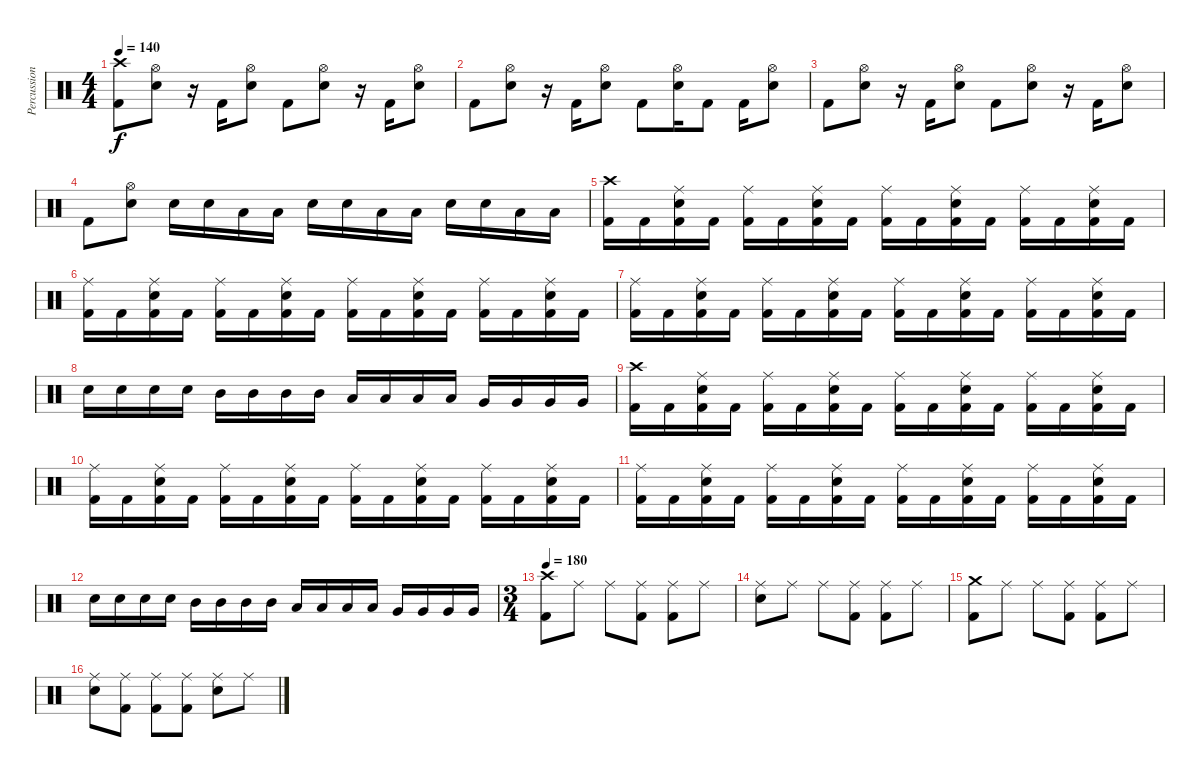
\track ("Percussion" "Percussion") {instrument percussion}
\staff {score}
\articulation defaults
\ts (4 4)
\tempo 140
\clef neutral
\ks c
("Crash high (hit)" "Kick (hit) 2").8{dy f} ("Hi-Hat (open)" "Snare (hit) 2").8 r.16 "Kick (hit) 2".16 ("Hi-Hat (open)" "Snare (hit) 2").8 "Kick (hit) 2".8 ("Hi-Hat (open)" "Snare (hit) 2").8 r.16 "Kick (hit) 2".16 ("Hi-Hat (open)" "Snare (hit) 2").8 |
"Kick (hit) 2".8 ("Hi-Hat (open)" "Snare (hit) 2").8 r.16 "Kick (hit) 2".16 ("Hi-Hat (open)" "Snare (hit) 2").8 "Kick (hit) 2".8 ("Hi-Hat (open)" "Snare (hit) 2").16 "Kick (hit) 2".8 "Kick (hit) 2".16 ("Hi-Hat (open)" "Snare (hit) 2").8 |
"Kick (hit) 2".8 ("Hi-Hat (open)" "Snare (hit) 2").8 r.16 "Kick (hit) 2".16 ("Hi-Hat (open)" "Snare (hit) 2").8 "Kick (hit) 2".8 ("Hi-Hat (open)" "Snare (hit) 2").8 r.16 "Kick (hit) 2".16 ("Hi-Hat (open)" "Snare (hit) 2").8 |
"Kick (hit) 2".8 ("Hi-Hat (open)" "Snare (hit) 2").8 "Snare (hit) 2".16 "Snare (hit) 2".16 "Low Tom (hit)".16 "Low Tom (hit)".16 "Snare (hit) 2".16 "Snare (hit) 2".16 "Low Tom (hit)".16 "Low Tom (hit)".16 "Snare (hit) 2".16 "Snare (hit) 2".16 "Low Tom (hit)".16 "Low Tom (hit)".16 |
("Crash high (hit)" "Kick (hit) 2").16 "Kick (hit) 2".16 ("Ride (middle)" "Snare (hit) 2" "Kick (hit) 2").16 "Kick (hit) 2".16 ("Ride (middle)" "Kick (hit) 2").16 "Kick (hit) 2".16 ("Ride (middle)" "Snare (hit) 2" "Kick (hit) 2").16 "Kick (hit) 2".16 ("Ride (middle)" "Kick (hit) 2").16 "Kick (hit) 2".16 ("Ride (middle)" "Snare (hit) 2" "Kick (hit) 2").16 "Kick (hit) 2".16 ("Ride (middle)" "Kick (hit) 2").16 "Kick (hit) 2".16 ("Ride (middle)" "Snare (hit) 2" "Kick (hit) 2").16 "Kick (hit) 2".16 |
("Ride (middle)" "Kick (hit) 2").16 "Kick (hit) 2".16 ("Ride (middle)" "Snare (hit) 2" "Kick (hit) 2").16 "Kick (hit) 2".16 ("Ride (middle)" "Kick (hit) 2").16 "Kick (hit) 2".16 ("Ride (middle)" "Snare (hit) 2" "Kick (hit) 2").16 "Kick (hit) 2".16 ("Ride (middle)" "Kick (hit) 2").16 "Kick (hit) 2".16 ("Ride (middle)" "Snare (hit) 2" "Kick (hit) 2").16 "Kick (hit) 2".16 ("Ride (middle)" "Kick (hit) 2").16 "Kick (hit) 2".16 ("Ride (middle)" "Snare (hit) 2" "Kick (hit) 2").16 "Kick (hit) 2".16 |
("Ride (middle)" "Kick (hit) 2").16 "Kick (hit) 2".16 ("Ride (middle)" "Snare (hit) 2" "Kick (hit) 2").16 "Kick (hit) 2".16 ("Ride (middle)" "Kick (hit) 2").16 "Kick (hit) 2".16 ("Ride (middle)" "Snare (hit) 2" "Kick (hit) 2").16 "Kick (hit) 2".16 ("Ride (middle)" "Kick (hit) 2").16 "Kick (hit) 2".16 ("Ride (middle)" "Snare (hit) 2" "Kick (hit) 2").16 "Kick (hit) 2".16 ("Ride (middle)" "Kick (hit) 2").16 "Kick (hit) 2".16 ("Ride (middle)" "Snare (hit) 2" "Kick (hit) 2").16 "Kick (hit) 2".16 |
"Snare (hit) 2".16 "Snare (hit) 2".16 "Snare (hit) 2".16 "Snare (hit) 2".16 "Mid Tom (hit)".16 "Mid Tom (hit)".16 "Mid Tom (hit)".16 "Mid Tom (hit)".16 "Low Tom (hit)".16 "Low Tom (hit)".16 "Low Tom (hit)".16 "Low Tom (hit)".16 "Very Low Tom (hit)".16 "Very Low Tom (hit)".16 "Very Low Tom (hit)".16 "Very Low Tom (hit)".16 |
("Crash high (hit)" "Kick (hit) 2").16 "Kick (hit) 2".16 ("Ride (middle)" "Snare (hit) 2" "Kick (hit) 2").16 "Kick (hit) 2".16 ("Ride (middle)" "Kick (hit) 2").16 "Kick (hit) 2".16 ("Ride (middle)" "Snare (hit) 2" "Kick (hit) 2").16 "Kick (hit) 2".16 ("Ride (middle)" "Kick (hit) 2").16 "Kick (hit) 2".16 ("Ride (middle)" "Snare (hit) 2" "Kick (hit) 2").16 "Kick (hit) 2".16 ("Ride (middle)" "Kick (hit) 2").16 "Kick (hit) 2".16 ("Ride (middle)" "Snare (hit) 2" "Kick (hit) 2").16 "Kick (hit) 2".16 |
("Ride (middle)" "Kick (hit) 2").16 "Kick (hit) 2".16 ("Ride (middle)" "Snare (hit) 2" "Kick (hit) 2").16 "Kick (hit) 2".16 ("Ride (middle)" "Kick (hit) 2").16 "Kick (hit) 2".16 ("Ride (middle)" "Snare (hit) 2" "Kick (hit) 2").16 "Kick (hit) 2".16 ("Ride (middle)" "Kick (hit) 2").16 "Kick (hit) 2".16 ("Ride (middle)" "Snare (hit) 2" "Kick (hit) 2").16 "Kick (hit) 2".16 ("Ride (middle)" "Kick (hit) 2").16 "Kick (hit) 2".16 ("Ride (middle)" "Snare (hit) 2" "Kick (hit) 2").16 "Kick (hit) 2".16 |
("Ride (middle)" "Kick (hit) 2").16 "Kick (hit) 2".16 ("Ride (middle)" "Snare (hit) 2" "Kick (hit) 2").16 "Kick (hit) 2".16 ("Ride (middle)" "Kick (hit) 2").16 "Kick (hit) 2".16 ("Ride (middle)" "Snare (hit) 2" "Kick (hit) 2").16 "Kick (hit) 2".16 ("Ride (middle)" "Kick (hit) 2").16 "Kick (hit) 2".16 ("Ride (middle)" "Snare (hit) 2" "Kick (hit) 2").16 "Kick (hit) 2".16 ("Ride (middle)" "Kick (hit) 2").16 "Kick (hit) 2".16 ("Ride (middle)" "Snare (hit) 2" "Kick (hit) 2").16 "Kick (hit) 2".16 |
"Snare (hit) 2".16 "Snare (hit) 2".16 "Snare (hit) 2".16 "Snare (hit) 2".16 "Mid Tom (hit)".16 "Mid Tom (hit)".16 "Mid Tom (hit)".16 "Mid Tom (hit)".16 "Low Tom (hit)".16 "Low Tom (hit)".16 "Low Tom (hit)".16 "Low Tom (hit)".16 "Very Low Tom (hit)".16 "Very Low Tom (hit)".16 "Very Low Tom (hit)".16 "Very Low Tom (hit)".16 |
\ts (3 4)
\tempo 180
("Crash high (hit)" "Kick (hit) 2").8 "Ride (middle)".8 "Ride (middle)".8 ("Ride (middle)" "Kick (hit) 2").8 ("Ride (middle)" "Kick (hit) 2").8 "Ride (middle)".8 |
("Ride (middle)" "Snare (hit) 2").8 "Ride (middle)".8 "Ride (middle)".8 ("Ride (middle)" "Kick (hit) 2").8 ("Ride (middle)" "Kick (hit) 2").8 "Ride (middle)".8 |
("Crash medium (hit)" "Kick (hit) 2").8 "Ride (middle)".8 "Ride (middle)".8 ("Ride (middle)" "Kick (hit) 2").8 ("Ride (middle)" "Kick (hit) 2").8 "Ride (middle)".8 |
("Ride (middle)" "Snare (hit) 2").8 ("Ride (middle)" "Kick (hit) 2").8 ("Ride (middle)" "Kick (hit) 2").8 ("Ride (middle)" "Kick (hit) 2").8 ("Ride (middle)" "Snare (hit) 2").8 "Ride (middle)".8
